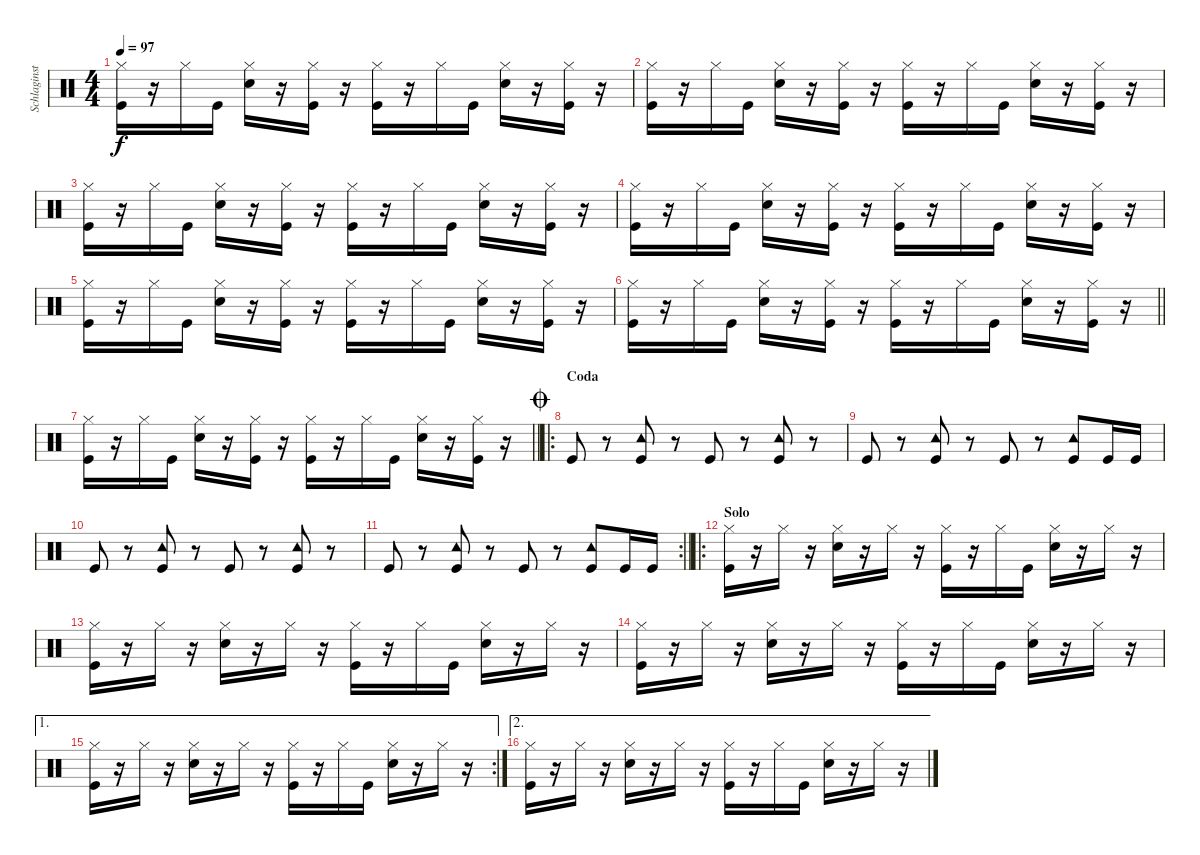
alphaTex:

\track ("Schlaginstrumente - Auswahl" "Schlaginst") {instrument percussion}
\staff {score}
\articulation defaults
\ts (4 4)
\tempo 97
\clef neutral
\ks c
("Hi-Hat (closed)" "Kick (hit)").16{dy f} r.16 "Hi-Hat (closed)".16 "Kick (hit)".16 ("Hi-Hat (closed)" "Snare (hit) 2").16 r.16 ("Hi-Hat (closed)" "Kick (hit)").16 r.16 ("Hi-Hat (closed)" "Kick (hit)").16 r.16 "Hi-Hat (closed)".16 "Kick (hit)".16 ("Hi-Hat (closed)" "Snare (hit) 2").16 r.16 ("Hi-Hat (closed)" "Kick (hit)").16 r.16 |
("Hi-Hat (closed)" "Kick (hit)").16 r.16 "Hi-Hat (closed)".16 "Kick (hit)".16 ("Hi-Hat (closed)" "Snare (hit) 2").16 r.16 ("Hi-Hat (closed)" "Kick (hit)").16 r.16 ("Hi-Hat (closed)" "Kick (hit)").16 r.16 "Hi-Hat (closed)".16 "Kick (hit)".16 ("Hi-Hat (closed)" "Snare (hit) 2").16 r.16 ("Hi-Hat (closed)" "Kick (hit)").16 r.16 |
("Hi-Hat (closed)" "Kick (hit)").16 r.16 "Hi-Hat (closed)".16 "Kick (hit)".16 ("Hi-Hat (closed)" "Snare (hit) 2").16 r.16 ("Hi-Hat (closed)" "Kick (hit)").16 r.16 ("Hi-Hat (closed)" "Kick (hit)").16 r.16 "Hi-Hat (closed)".16 "Kick (hit)".16 ("Hi-Hat (closed)" "Snare (hit) 2").16 r.16 ("Hi-Hat (closed)" "Kick (hit)").16 r.16 |
("Hi-Hat (closed)" "Kick (hit)").16 r.16 "Hi-Hat (closed)".16 "Kick (hit)".16 ("Hi-Hat (closed)" "Snare (hit) 2").16 r.16 ("Hi-Hat (closed)" "Kick (hit)").16 r.16 ("Hi-Hat (closed)" "Kick (hit)").16 r.16 "Hi-Hat (closed)".16 "Kick (hit)".16 ("Hi-Hat (closed)" "Snare (hit) 2").16 r.16 ("Hi-Hat (closed)" "Kick (hit)").16 r.16 |
("Hi-Hat (closed)" "Kick (hit)").16 r.16 "Hi-Hat (closed)".16 "Kick (hit)".16 ("Hi-Hat (closed)" "Snare (hit) 2").16 r.16 ("Hi-Hat (closed)" "Kick (hit)").16 r.16 ("Hi-Hat (closed)" "Kick (hit)").16 r.16 "Hi-Hat (closed)".16 "Kick (hit)".16 ("Hi-Hat (closed)" "Snare (hit) 2").16 r.16 ("Hi-Hat (closed)" "Kick (hit)").16 r.16 |
\barLineRight lightlight
("Hi-Hat (closed)" "Kick (hit)").16 r.16 "Hi-Hat (closed)".16 "Kick (hit)".16 ("Hi-Hat (closed)" "Snare (hit) 2").16 r.16 ("Hi-Hat (closed)" "Kick (hit)").16 r.16 ("Hi-Hat (closed)" "Kick (hit)").16 r.16 "Hi-Hat (closed)".16 "Kick (hit)".16 ("Hi-Hat (closed)" "Snare (hit) 2").16 r.16 ("Hi-Hat (closed)" "Kick (hit)").16 r.16 |
\barLineRight lightlight
("Hi-Hat (closed)" "Kick (hit)").16 r.16 "Hi-Hat (closed)".16 "Kick (hit)".16 ("Hi-Hat (closed)" "Snare (hit) 2").16 r.16 ("Hi-Hat (closed)" "Kick (hit)").16 r.16 ("Hi-Hat (closed)" "Kick (hit)").16 r.16 "Hi-Hat (closed)".16 "Kick (hit)".16 ("Hi-Hat (closed)" "Snare (hit) 2").16 r.16 ("Hi-Hat (closed)" "Kick (hit)").16 r.16 |
\ro
\section ("" "Coda")
\jump coda "Kick (hit)".8
r.8 ("Tambourine (hit)" "Kick (hit)").8 r.8 "Kick (hit)".8 r.8 ("Tambourine (hit)" "Kick (hit)").8 r.8 |
"Kick (hit)".8 r.8 ("Tambourine (hit)" "Kick (hit)").8 r.8 "Kick (hit)".8 r.8 ("Tambourine (hit)" "Kick (hit)").8 "Kick (hit)".16 "Kick (hit)".16 |
"Kick (hit)".8 r.8 ("Tambourine (hit)" "Kick (hit)").8 r.8 "Kick (hit)".8 r.8 ("Tambourine (hit)" "Kick (hit)").8 r.8 |
\rc 2
\barLineRight lightlight "Kick (hit)".8
r.8 ("Tambourine (hit)" "Kick (hit)").8 r.8 "Kick (hit)".8 r.8 ("Tambourine (hit)" "Kick (hit)").8 "Kick (hit)".16 "Kick (hit)".16 |
\ro
\section ("" "Solo")
("Hi-Hat (closed)" "Kick (hit)").16 r.16 "Hi-Hat (closed)".16 r.16 ("Hi-Hat (closed)" "Snare (hit) 2").16 r.16 "Hi-Hat (closed)".16 r.16 ("Hi-Hat (closed)" "Kick (hit)").16 r.16 "Hi-Hat (closed)".16 "Kick (hit)".16 ("Hi-Hat (closed)" "Snare (hit) 2").16 r.16 "Hi-Hat (closed)".16 r.16 |
("Hi-Hat (closed)" "Kick (hit)").16 r.16 "Hi-Hat (closed)".16 r.16 ("Hi-Hat (closed)" "Snare (hit) 2").16 r.16 "Hi-Hat (closed)".16 r.16 ("Hi-Hat (closed)" "Kick (hit)").16 r.16 "Hi-Hat (closed)".16 "Kick (hit)".16 ("Hi-Hat (closed)" "Snare (hit) 2").16 r.16 "Hi-Hat (closed)".16 r.16 |
("Hi-Hat (closed)" "Kick (hit)").16 r.16 "Hi-Hat (closed)".16 r.16 ("Hi-Hat (closed)" "Snare (hit) 2").16 r.16 "Hi-Hat (closed)".16 r.16 ("Hi-Hat (closed)" "Kick (hit)").16 r.16 "Hi-Hat (closed)".16 "Kick (hit)".16 ("Hi-Hat (closed)" "Snare (hit) 2").16 r.16 "Hi-Hat (closed)".16 r.16 |
\ae 1
\rc 2
("Hi-Hat (closed)" "Kick (hit)").16 r.16 "Hi-Hat (closed)".16 r.16 ("Hi-Hat (closed)" "Snare (hit) 2").16 r.16 "Hi-Hat (closed)".16 r.16 ("Hi-Hat (closed)" "Kick (hit)").16 r.16 "Hi-Hat (closed)".16 "Kick (hit)".16 ("Hi-Hat (closed)" "Snare (hit) 2").16 r.16 "Hi-Hat (closed)".16 r.16 |
\ae 2
("Hi-Hat (closed)" "Kick (hit)").16 r.16 "Hi-Hat (closed)".16 r.16 ("Hi-Hat (closed)" "Snare (hit) 2").16 r.16 "Hi-Hat (closed)".16 r.16 ("Hi-Hat (closed)" "Kick (hit)").16 r.16 "Hi-Hat (closed)".16 "Kick (hit)".16 ("Hi-Hat (closed)" "Snare (hit) 2").16 r.16 "Hi-Hat (closed)".16 r.16
